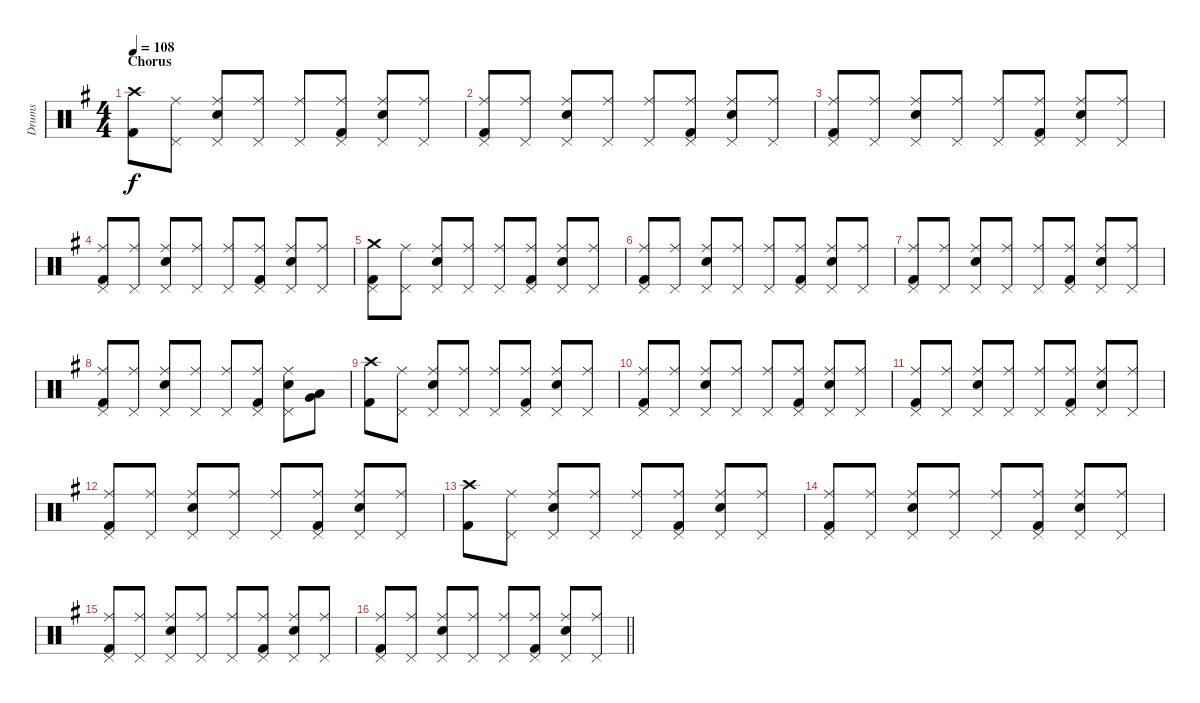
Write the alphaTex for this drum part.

\track ("Drums" "Drums") {instrument percussion}
\staff {score}
\articulation defaults
\ts (4 4)
\section ("" "Chorus")
\tempo 108
\clef neutral
\ks g
("Crash high (hit)" "Kick (hit) 2").8{dy f} ("Ride (middle)" "Pedal Hi-Hat (hit)").8 ("Ride (middle)" "Electric Snare (hit)" "Pedal Hi-Hat (hit)").8 ("Ride (middle)" "Pedal Hi-Hat (hit)").8 ("Ride (middle)" "Pedal Hi-Hat (hit)").8 ("Ride (middle)" "Kick (hit) 2" "Pedal Hi-Hat (hit)").8 ("Ride (middle)" "Electric Snare (hit)" "Pedal Hi-Hat (hit)").8 ("Ride (middle)" "Pedal Hi-Hat (hit)").8 |
("Ride (middle)" "Kick (hit) 2" "Pedal Hi-Hat (hit)").8 ("Ride (middle)" "Pedal Hi-Hat (hit)").8 ("Ride (middle)" "Electric Snare (hit)" "Pedal Hi-Hat (hit)").8 ("Ride (middle)" "Pedal Hi-Hat (hit)").8 ("Ride (middle)" "Pedal Hi-Hat (hit)").8 ("Ride (middle)" "Kick (hit) 2" "Pedal Hi-Hat (hit)").8 ("Ride (middle)" "Electric Snare (hit)" "Pedal Hi-Hat (hit)").8 ("Ride (middle)" "Pedal Hi-Hat (hit)").8 |
("Ride (middle)" "Kick (hit) 2" "Pedal Hi-Hat (hit)").8 ("Ride (middle)" "Pedal Hi-Hat (hit)").8 ("Ride (middle)" "Electric Snare (hit)" "Pedal Hi-Hat (hit)").8 ("Ride (middle)" "Pedal Hi-Hat (hit)").8 ("Ride (middle)" "Pedal Hi-Hat (hit)").8 ("Ride (middle)" "Kick (hit) 2" "Pedal Hi-Hat (hit)").8 ("Ride (middle)" "Electric Snare (hit)" "Pedal Hi-Hat (hit)").8 ("Ride (middle)" "Pedal Hi-Hat (hit)").8 |
("Ride (middle)" "Kick (hit) 2" "Pedal Hi-Hat (hit)").8 ("Ride (middle)" "Pedal Hi-Hat (hit)").8 ("Ride (middle)" "Electric Snare (hit)" "Pedal Hi-Hat (hit)").8 ("Ride (middle)" "Pedal Hi-Hat (hit)").8 ("Ride (middle)" "Pedal Hi-Hat (hit)").8 ("Ride (middle)" "Kick (hit) 2" "Pedal Hi-Hat (hit)").8 ("Ride (middle)" "Electric Snare (hit)" "Pedal Hi-Hat (hit)").8 ("Ride (middle)" "Pedal Hi-Hat (hit)").8 |
("Crash medium (hit)" "Kick (hit) 2" "Pedal Hi-Hat (hit)").8 ("Ride (middle)" "Pedal Hi-Hat (hit)").8 ("Ride (middle)" "Electric Snare (hit)" "Pedal Hi-Hat (hit)").8 ("Ride (middle)" "Pedal Hi-Hat (hit)").8 ("Ride (middle)" "Pedal Hi-Hat (hit)").8 ("Ride (middle)" "Kick (hit) 2" "Pedal Hi-Hat (hit)").8 ("Ride (middle)" "Electric Snare (hit)" "Pedal Hi-Hat (hit)").8 ("Ride (middle)" "Pedal Hi-Hat (hit)").8 |
("Ride (middle)" "Kick (hit) 2" "Pedal Hi-Hat (hit)").8 ("Ride (middle)" "Pedal Hi-Hat (hit)").8 ("Ride (middle)" "Electric Snare (hit)" "Pedal Hi-Hat (hit)").8 ("Ride (middle)" "Pedal Hi-Hat (hit)").8 ("Ride (middle)" "Pedal Hi-Hat (hit)").8 ("Ride (middle)" "Kick (hit) 2" "Pedal Hi-Hat (hit)").8 ("Ride (middle)" "Electric Snare (hit)" "Pedal Hi-Hat (hit)").8 ("Ride (middle)" "Pedal Hi-Hat (hit)").8 |
("Ride (middle)" "Kick (hit) 2" "Pedal Hi-Hat (hit)").8 ("Ride (middle)" "Pedal Hi-Hat (hit)").8 ("Ride (middle)" "Electric Snare (hit)" "Pedal Hi-Hat (hit)").8 ("Ride (middle)" "Pedal Hi-Hat (hit)").8 ("Ride (middle)" "Pedal Hi-Hat (hit)").8 ("Ride (middle)" "Kick (hit) 2" "Pedal Hi-Hat (hit)").8 ("Ride (middle)" "Electric Snare (hit)" "Pedal Hi-Hat (hit)").8 ("Ride (middle)" "Pedal Hi-Hat (hit)").8 |
("Ride (middle)" "Kick (hit) 2" "Pedal Hi-Hat (hit)").8 ("Ride (middle)" "Pedal Hi-Hat (hit)").8 ("Ride (middle)" "Electric Snare (hit)" "Pedal Hi-Hat (hit)").8 ("Ride (middle)" "Pedal Hi-Hat (hit)").8 ("Ride (middle)" "Pedal Hi-Hat (hit)").8 ("Ride (middle)" "Kick (hit) 2" "Pedal Hi-Hat (hit)").8 ("Ride (middle)" "Electric Snare (hit)" "Pedal Hi-Hat (hit)").8 ("Low Tom (hit)" "Very Low Tom (hit)").8 |
("Crash high (hit)" "Kick (hit) 2").8 ("Ride (middle)" "Pedal Hi-Hat (hit)").8 ("Ride (middle)" "Electric Snare (hit)" "Pedal Hi-Hat (hit)").8 ("Ride (middle)" "Pedal Hi-Hat (hit)").8 ("Ride (middle)" "Pedal Hi-Hat (hit)").8 ("Ride (middle)" "Kick (hit) 2" "Pedal Hi-Hat (hit)").8 ("Ride (middle)" "Electric Snare (hit)" "Pedal Hi-Hat (hit)").8 ("Ride (middle)" "Pedal Hi-Hat (hit)").8 |
("Ride (middle)" "Kick (hit) 2" "Pedal Hi-Hat (hit)").8 ("Ride (middle)" "Pedal Hi-Hat (hit)").8 ("Ride (middle)" "Electric Snare (hit)" "Pedal Hi-Hat (hit)").8 ("Ride (middle)" "Pedal Hi-Hat (hit)").8 ("Ride (middle)" "Pedal Hi-Hat (hit)").8 ("Ride (middle)" "Kick (hit) 2" "Pedal Hi-Hat (hit)").8 ("Ride (middle)" "Electric Snare (hit)" "Pedal Hi-Hat (hit)").8 ("Ride (middle)" "Pedal Hi-Hat (hit)").8 |
("Ride (middle)" "Kick (hit) 2" "Pedal Hi-Hat (hit)").8 ("Ride (middle)" "Pedal Hi-Hat (hit)").8 ("Ride (middle)" "Electric Snare (hit)" "Pedal Hi-Hat (hit)").8 ("Ride (middle)" "Pedal Hi-Hat (hit)").8 ("Ride (middle)" "Pedal Hi-Hat (hit)").8 ("Ride (middle)" "Kick (hit) 2" "Pedal Hi-Hat (hit)").8 ("Ride (middle)" "Electric Snare (hit)" "Pedal Hi-Hat (hit)").8 ("Ride (middle)" "Pedal Hi-Hat (hit)").8 |
("Ride (middle)" "Kick (hit) 2" "Pedal Hi-Hat (hit)").8 ("Ride (middle)" "Pedal Hi-Hat (hit)").8 ("Ride (middle)" "Electric Snare (hit)" "Pedal Hi-Hat (hit)").8 ("Ride (middle)" "Pedal Hi-Hat (hit)").8 ("Ride (middle)" "Pedal Hi-Hat (hit)").8 ("Ride (middle)" "Kick (hit) 2" "Pedal Hi-Hat (hit)").8 ("Ride (middle)" "Electric Snare (hit)" "Pedal Hi-Hat (hit)").8 ("Ride (middle)" "Pedal Hi-Hat (hit)").8 |
("Crash high (hit)" "Kick (hit) 2").8 ("Ride (middle)" "Pedal Hi-Hat (hit)").8 ("Ride (middle)" "Electric Snare (hit)" "Pedal Hi-Hat (hit)").8 ("Ride (middle)" "Pedal Hi-Hat (hit)").8 ("Ride (middle)" "Pedal Hi-Hat (hit)").8 ("Ride (middle)" "Kick (hit) 2" "Pedal Hi-Hat (hit)").8 ("Ride (middle)" "Electric Snare (hit)" "Pedal Hi-Hat (hit)").8 ("Ride (middle)" "Pedal Hi-Hat (hit)").8 |
("Ride (middle)" "Kick (hit) 2" "Pedal Hi-Hat (hit)").8 ("Ride (middle)" "Pedal Hi-Hat (hit)").8 ("Ride (middle)" "Electric Snare (hit)" "Pedal Hi-Hat (hit)").8 ("Ride (middle)" "Pedal Hi-Hat (hit)").8 ("Ride (middle)" "Pedal Hi-Hat (hit)").8 ("Ride (middle)" "Kick (hit) 2" "Pedal Hi-Hat (hit)").8 ("Ride (middle)" "Electric Snare (hit)" "Pedal Hi-Hat (hit)").8 ("Ride (middle)" "Pedal Hi-Hat (hit)").8 |
("Ride (middle)" "Kick (hit) 2" "Pedal Hi-Hat (hit)").8 ("Ride (middle)" "Pedal Hi-Hat (hit)").8 ("Ride (middle)" "Electric Snare (hit)" "Pedal Hi-Hat (hit)").8 ("Ride (middle)" "Pedal Hi-Hat (hit)").8 ("Ride (middle)" "Pedal Hi-Hat (hit)").8 ("Ride (middle)" "Kick (hit) 2" "Pedal Hi-Hat (hit)").8 ("Ride (middle)" "Electric Snare (hit)" "Pedal Hi-Hat (hit)").8 ("Ride (middle)" "Pedal Hi-Hat (hit)").8 |
\barLineRight lightlight
("Ride (middle)" "Kick (hit) 2" "Pedal Hi-Hat (hit)").8 ("Ride (middle)" "Pedal Hi-Hat (hit)").8 ("Ride (middle)" "Electric Snare (hit)" "Pedal Hi-Hat (hit)").8 ("Ride (middle)" "Pedal Hi-Hat (hit)").8 ("Ride (middle)" "Pedal Hi-Hat (hit)").8 ("Ride (middle)" "Kick (hit) 2" "Pedal Hi-Hat (hit)").8 ("Ride (middle)" "Electric Snare (hit)" "Pedal Hi-Hat (hit)").8 ("Ride (middle)" "Pedal Hi-Hat (hit)").8
